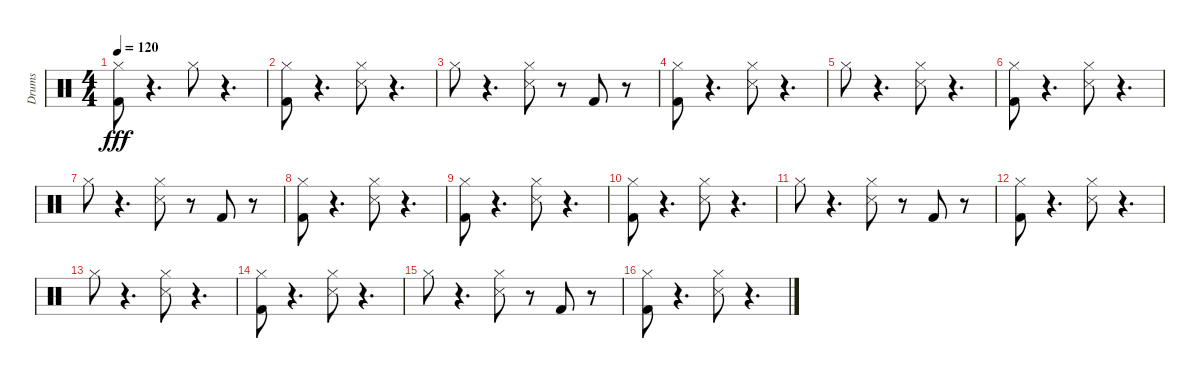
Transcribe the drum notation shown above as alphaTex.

\track ("Drums" "Drums") {instrument percussion}
\staff {score}
\articulation defaults
\ts (4 4)
\tempo 120
\clef neutral
\ks c
("Kick (hit) 2" "Hi-Hat (closed)").8{dy fff} r.4{d} "Hi-Hat (closed)".8 r.4{d} |
("Hi-Hat (closed)" "Kick (hit) 2").8 r.4{d} ("Hi-Hat (closed)" "Snare (side stick) 3").8 r.4{d} |
"Hi-Hat (closed)".8 r.4{d} ("Snare (side stick) 3" "Hi-Hat (closed)").8 r.8 "Kick (hit) 2".8 r.8 |
("Hi-Hat (closed)" "Kick (hit) 2").8 r.4{d} ("Snare (side stick) 3" "Hi-Hat (closed)").8 r.4{d} |
"Hi-Hat (closed)".8 r.4{d} ("Snare (side stick) 3" "Hi-Hat (closed)").8 r.4{d} |
("Hi-Hat (closed)" "Kick (hit) 2").8 r.4{d} ("Snare (side stick) 3" "Hi-Hat (closed)").8 r.4{d} |
"Hi-Hat (closed)".8 r.4{d} ("Snare (side stick) 3" "Hi-Hat (closed)").8 r.8 "Kick (hit) 2".8 r.8 |
("Hi-Hat (closed)" "Kick (hit) 2").8 r.4{d} ("Snare (side stick) 3" "Hi-Hat (closed)").8 r.4{d} |
("Kick (hit) 2" "Hi-Hat (closed)").8 r.4{d} ("Snare (side stick) 3" "Hi-Hat (closed)").8 r.4{d} |
("Hi-Hat (closed)" "Kick (hit) 2").8 r.4{d} ("Hi-Hat (closed)" "Snare (side stick) 3").8 r.4{d} |
"Hi-Hat (closed)".8 r.4{d} ("Snare (side stick) 3" "Hi-Hat (closed)").8 r.8 "Kick (hit) 2".8 r.8 |
("Hi-Hat (closed)" "Kick (hit) 2").8 r.4{d} ("Snare (side stick) 3" "Hi-Hat (closed)").8 r.4{d} |
"Hi-Hat (closed)".8 r.4{d} ("Snare (side stick) 3" "Hi-Hat (closed)").8 r.4{d} |
("Hi-Hat (closed)" "Kick (hit) 2").8 r.4{d} ("Snare (side stick) 3" "Hi-Hat (closed)").8 r.4{d} |
"Hi-Hat (closed)".8 r.4{d} ("Snare (side stick) 3" "Hi-Hat (closed)").8 r.8 "Kick (hit) 2".8 r.8 |
("Hi-Hat (closed)" "Kick (hit) 2").8 r.4{d} ("Snare (side stick) 3" "Hi-Hat (closed)").8 r.4{d}
